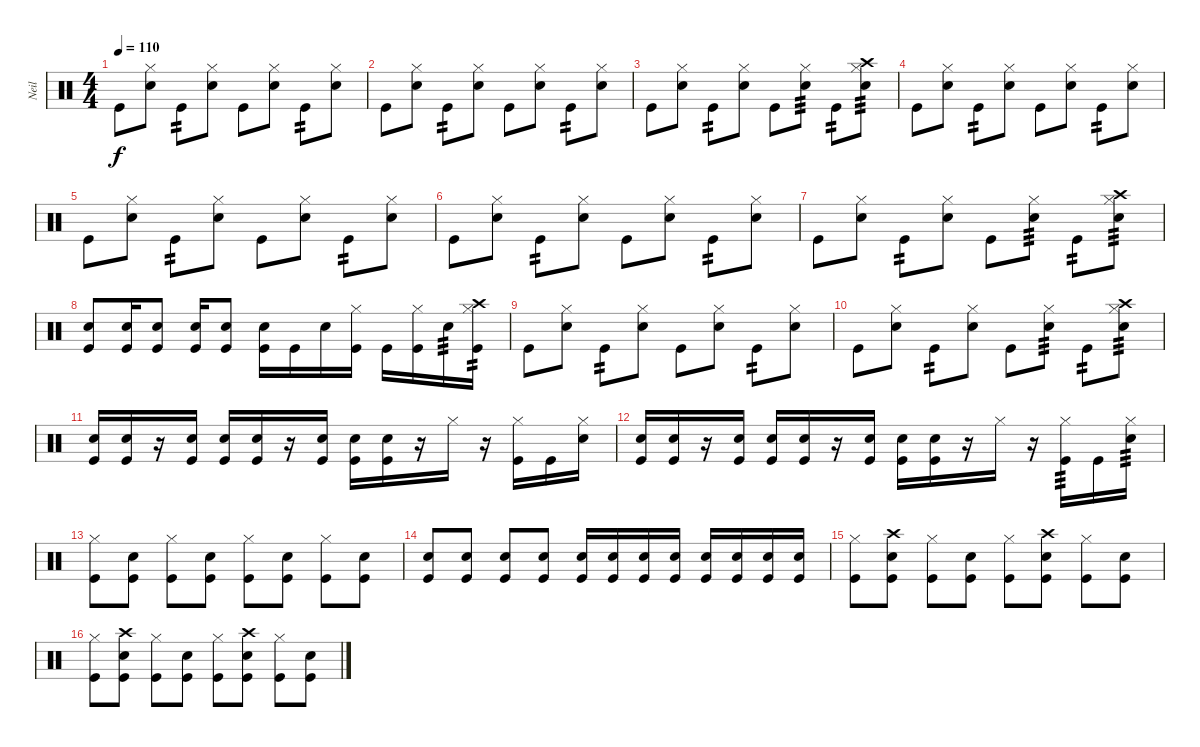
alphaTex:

\track ("Neil" "Neil") {instrument percussion}
\staff {score}
\articulation defaults
\ts (4 4)
\tempo 110
\clef neutral
\ks c "Kick (hit)".8{dy f}
("Hi-Hat (closed)" "Snare (hit) 2").8 "Kick (hit)".8{tp 2} ("Hi-Hat (closed)" "Snare (hit) 2").8 "Kick (hit)".8 ("Hi-Hat (closed)" "Snare (hit) 2").8 "Kick (hit)".8{tp 2} ("Hi-Hat (closed)" "Snare (hit) 2").8 |
"Kick (hit)".8 ("Hi-Hat (closed)" "Snare (hit) 2").8 "Kick (hit)".8{tp 2} ("Hi-Hat (closed)" "Snare (hit) 2").8 "Kick (hit)".8 ("Hi-Hat (closed)" "Snare (hit) 2").8 "Kick (hit)".8{tp 2} ("Hi-Hat (closed)" "Snare (hit) 2").8 |
"Kick (hit)".8 ("Hi-Hat (closed)" "Snare (hit) 2").8 "Kick (hit)".8{tp 2} ("Hi-Hat (closed)" "Snare (hit) 2").8 "Kick (hit)".8 ("Hi-Hat (closed)" "Snare (hit) 2").8{tp 3} "Kick (hit)".8{tp 2} ("Crash high (hit)" "Hi-Hat (closed)" "Snare (hit) 2").8{tp 3} |
"Kick (hit)".8 ("Hi-Hat (closed)" "Snare (hit) 2").8 "Kick (hit)".8{tp 2} ("Hi-Hat (closed)" "Snare (hit) 2").8 "Kick (hit)".8 ("Hi-Hat (closed)" "Snare (hit) 2").8 "Kick (hit)".8{tp 2} ("Hi-Hat (closed)" "Snare (hit) 2").8 |
"Kick (hit)".8 ("Hi-Hat (closed)" "Snare (hit) 2").8 "Kick (hit)".8{tp 2} ("Hi-Hat (closed)" "Snare (hit) 2").8 "Kick (hit)".8 ("Hi-Hat (closed)" "Snare (hit) 2").8 "Kick (hit)".8{tp 2} ("Hi-Hat (closed)" "Snare (hit) 2").8 |
"Kick (hit)".8 ("Hi-Hat (closed)" "Snare (hit) 2").8 "Kick (hit)".8{tp 2} ("Hi-Hat (closed)" "Snare (hit) 2").8 "Kick (hit)".8 ("Hi-Hat (closed)" "Snare (hit) 2").8 "Kick (hit)".8{tp 2} ("Hi-Hat (closed)" "Snare (hit) 2").8 |
"Kick (hit)".8 ("Hi-Hat (closed)" "Snare (hit) 2").8 "Kick (hit)".8{tp 2} ("Hi-Hat (closed)" "Snare (hit) 2").8 "Kick (hit)".8 ("Hi-Hat (closed)" "Snare (hit) 2").8{tp 3} "Kick (hit)".8{tp 2} ("Crash high (hit)" "Hi-Hat (closed)" "Snare (hit) 2").8{tp 3} |
("Snare (hit) 2" "Kick (hit)").8 ("Snare (hit) 2" "Kick (hit)").16 ("Snare (hit) 2" "Kick (hit)").8 ("Snare (hit) 2" "Kick (hit)").16 ("Snare (hit) 2" "Kick (hit)").8 ("Snare (hit) 2" "Kick (hit)").16 "Kick (hit)".16 "Snare (hit) 2".16 ("Hi-Hat (closed)" "Kick (hit)").16 "Kick (hit)".16 ("Hi-Hat (closed)" "Kick (hit)").16 "Snare (hit) 2".16{tp 3} ("Crash high (hit)" "Hi-Hat (closed)" "Kick (hit)").16{tp 2} |
"Kick (hit)".8 ("Hi-Hat (closed)" "Snare (hit) 2").8 "Kick (hit)".8{tp 2} ("Hi-Hat (closed)" "Snare (hit) 2").8 "Kick (hit)".8 ("Hi-Hat (closed)" "Snare (hit) 2").8 "Kick (hit)".8{tp 2} ("Hi-Hat (closed)" "Snare (hit) 2").8 |
"Kick (hit)".8 ("Hi-Hat (closed)" "Snare (hit) 2").8 "Kick (hit)".8{tp 2} ("Hi-Hat (closed)" "Snare (hit) 2").8 "Kick (hit)".8 ("Hi-Hat (closed)" "Snare (hit) 2").8{tp 3} "Kick (hit)".8{tp 2} ("Crash high (hit)" "Hi-Hat (closed)" "Snare (hit) 2").8{tp 3} |
("Snare (hit) 2" "Kick (hit)").16 ("Snare (hit) 2" "Kick (hit)").16 r.16 ("Snare (hit) 2" "Kick (hit)").16 ("Snare (hit) 2" "Kick (hit)").16 ("Snare (hit) 2" "Kick (hit)").16 r.16 ("Snare (hit) 2" "Kick (hit)").16 ("Snare (hit) 2" "Kick (hit)").16 ("Snare (hit) 2" "Kick (hit)").16 r.16 "Hi-Hat (closed)".16 r.16 ("Hi-Hat (closed)" "Kick (hit)").16 "Kick (hit)".16 ("Hi-Hat (closed)" "Snare (hit) 2").16 |
("Snare (hit) 2" "Kick (hit)").16 ("Snare (hit) 2" "Kick (hit)").16 r.16 ("Snare (hit) 2" "Kick (hit)").16 ("Snare (hit) 2" "Kick (hit)").16 ("Snare (hit) 2" "Kick (hit)").16 r.16 ("Snare (hit) 2" "Kick (hit)").16 ("Snare (hit) 2" "Kick (hit)").16 ("Snare (hit) 2" "Kick (hit)").16 r.16 "Hi-Hat (closed)".16 r.16 ("Hi-Hat (closed)" "Kick (hit)").16{tp 3} "Kick (hit)".16 ("Hi-Hat (closed)" "Snare (hit) 2").16{tp 3} |
("Hi-Hat (closed)" "Kick (hit)").8 ("Snare (hit) 2" "Kick (hit)").8 ("Hi-Hat (closed)" "Kick (hit)").8 ("Snare (hit) 2" "Kick (hit)").8 ("Hi-Hat (closed)" "Kick (hit)").8 ("Snare (hit) 2" "Kick (hit)").8 ("Hi-Hat (closed)" "Kick (hit)").8 ("Snare (hit) 2" "Kick (hit)").8 |
("Snare (hit) 2" "Kick (hit)").8 ("Snare (hit) 2" "Kick (hit)").8 ("Snare (hit) 2" "Kick (hit)").8 ("Snare (hit) 2" "Kick (hit)").8 ("Snare (hit) 2" "Kick (hit)").16 ("Snare (hit) 2" "Kick (hit)").16 ("Snare (hit) 2" "Kick (hit)").16 ("Snare (hit) 2" "Kick (hit)").16 ("Snare (hit) 2" "Kick (hit)").16 ("Snare (hit) 2" "Kick (hit)").16 ("Snare (hit) 2" "Kick (hit)").16 ("Snare (hit) 2" "Kick (hit)").16 |
("Hi-Hat (closed)" "Kick (hit)").8 ("Crash high (hit)" "Snare (hit) 2" "Kick (hit)").8 ("Hi-Hat (closed)" "Kick (hit)").8 ("Snare (hit) 2" "Kick (hit)").8 ("Hi-Hat (closed)" "Kick (hit)").8 ("Crash high (hit)" "Snare (hit) 2" "Kick (hit)").8 ("Hi-Hat (closed)" "Kick (hit)").8 ("Snare (hit) 2" "Kick (hit)").8 |
("Hi-Hat (closed)" "Kick (hit)").8 ("Crash high (hit)" "Snare (hit) 2" "Kick (hit)").8 ("Hi-Hat (closed)" "Kick (hit)").8 ("Snare (hit) 2" "Kick (hit)").8 ("Hi-Hat (closed)" "Kick (hit)").8 ("Crash high (hit)" "Snare (hit) 2" "Kick (hit)").8 ("Hi-Hat (closed)" "Kick (hit)").8 ("Snare (hit) 2" "Kick (hit)").8
